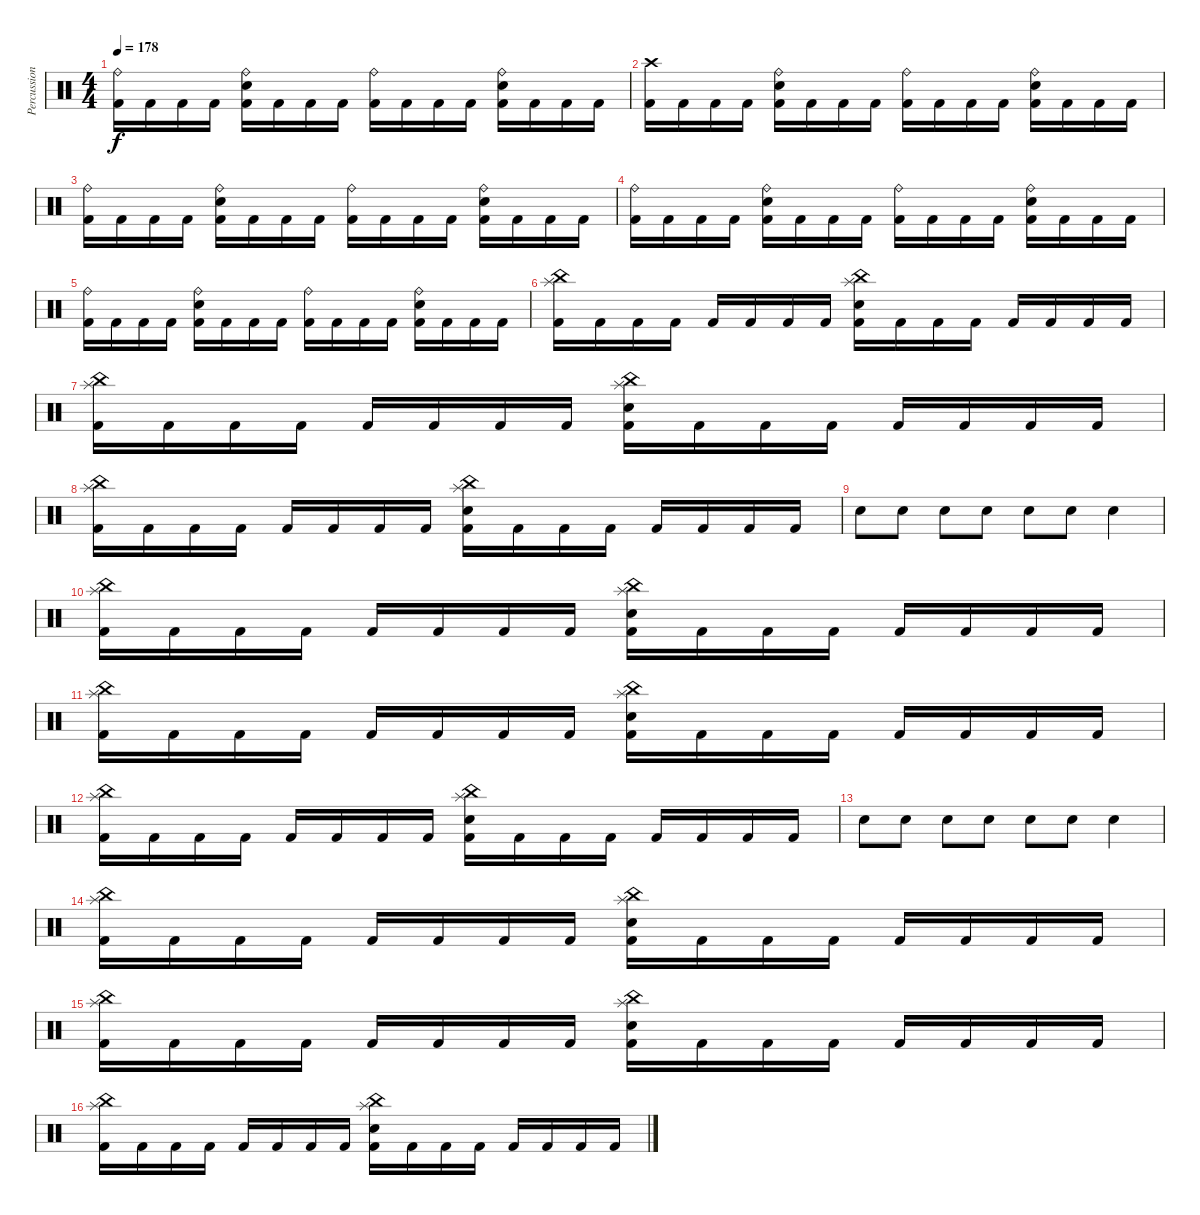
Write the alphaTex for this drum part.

\track ("Percussion" "Percussion") {instrument percussion}
\staff {score}
\articulation defaults
\ts (4 4)
\tempo 178
\clef neutral
\ks c
("Ride (bell)" "Kick (hit) 2").16{dy f} "Kick (hit) 2".16 "Kick (hit) 2".16 "Kick (hit) 2".16 ("Ride (bell)" "Electric Snare (hit)" "Kick (hit) 2").16 "Kick (hit) 2".16 "Kick (hit) 2".16 "Kick (hit) 2".16 ("Ride (bell)" "Kick (hit) 2").16 "Kick (hit) 2".16 "Kick (hit) 2".16 "Kick (hit) 2".16 ("Ride (bell)" "Electric Snare (hit)" "Kick (hit) 2").16 "Kick (hit) 2".16 "Kick (hit) 2".16 "Kick (hit) 2".16 |
("Crash high (hit)" "Kick (hit) 2").16 "Kick (hit) 2".16 "Kick (hit) 2".16 "Kick (hit) 2".16 ("Ride (bell)" "Electric Snare (hit)" "Kick (hit) 2").16 "Kick (hit) 2".16 "Kick (hit) 2".16 "Kick (hit) 2".16 ("Ride (bell)" "Kick (hit) 2").16 "Kick (hit) 2".16 "Kick (hit) 2".16 "Kick (hit) 2".16 ("Ride (bell)" "Electric Snare (hit)" "Kick (hit) 2").16 "Kick (hit) 2".16 "Kick (hit) 2".16 "Kick (hit) 2".16 |
("Ride (bell)" "Kick (hit) 2").16 "Kick (hit) 2".16 "Kick (hit) 2".16 "Kick (hit) 2".16 ("Ride (bell)" "Electric Snare (hit)" "Kick (hit) 2").16 "Kick (hit) 2".16 "Kick (hit) 2".16 "Kick (hit) 2".16 ("Ride (bell)" "Kick (hit) 2").16 "Kick (hit) 2".16 "Kick (hit) 2".16 "Kick (hit) 2".16 ("Ride (bell)" "Electric Snare (hit)" "Kick (hit) 2").16 "Kick (hit) 2".16 "Kick (hit) 2".16 "Kick (hit) 2".16 |
("Ride (bell)" "Kick (hit) 2").16 "Kick (hit) 2".16 "Kick (hit) 2".16 "Kick (hit) 2".16 ("Ride (bell)" "Electric Snare (hit)" "Kick (hit) 2").16 "Kick (hit) 2".16 "Kick (hit) 2".16 "Kick (hit) 2".16 ("Ride (bell)" "Kick (hit) 2").16 "Kick (hit) 2".16 "Kick (hit) 2".16 "Kick (hit) 2".16 ("Ride (bell)" "Electric Snare (hit)" "Kick (hit) 2").16 "Kick (hit) 2".16 "Kick (hit) 2".16 "Kick (hit) 2".16 |
("Ride (bell)" "Kick (hit) 2").16 "Kick (hit) 2".16 "Kick (hit) 2".16 "Kick (hit) 2".16 ("Ride (bell)" "Electric Snare (hit)" "Kick (hit) 2").16 "Kick (hit) 2".16 "Kick (hit) 2".16 "Kick (hit) 2".16 ("Ride (bell)" "Kick (hit) 2").16 "Kick (hit) 2".16 "Kick (hit) 2".16 "Kick (hit) 2".16 ("Ride (bell)" "Electric Snare (hit)" "Kick (hit) 2").16 "Kick (hit) 2".16 "Kick (hit) 2".16 "Kick (hit) 2".16 |
("China (hit)" "Splash (hit)" "Kick (hit) 2").16 "Kick (hit) 2".16 "Kick (hit) 2".16 "Kick (hit) 2".16 "Kick (hit) 2".16 "Kick (hit) 2".16 "Kick (hit) 2".16 "Kick (hit) 2".16 ("China (hit)" "Splash (hit)" "Electric Snare (hit)" "Kick (hit) 2").16 "Kick (hit) 2".16 "Kick (hit) 2".16 "Kick (hit) 2".16 "Kick (hit) 2".16 "Kick (hit) 2".16 "Kick (hit) 2".16 "Kick (hit) 2".16 |
("China (hit)" "Splash (hit)" "Kick (hit) 2").16 "Kick (hit) 2".16 "Kick (hit) 2".16 "Kick (hit) 2".16 "Kick (hit) 2".16 "Kick (hit) 2".16 "Kick (hit) 2".16 "Kick (hit) 2".16 ("China (hit)" "Splash (hit)" "Electric Snare (hit)" "Kick (hit) 2").16 "Kick (hit) 2".16 "Kick (hit) 2".16 "Kick (hit) 2".16 "Kick (hit) 2".16 "Kick (hit) 2".16 "Kick (hit) 2".16 "Kick (hit) 2".16 |
("China (hit)" "Splash (hit)" "Kick (hit) 2").16 "Kick (hit) 2".16 "Kick (hit) 2".16 "Kick (hit) 2".16 "Kick (hit) 2".16 "Kick (hit) 2".16 "Kick (hit) 2".16 "Kick (hit) 2".16 ("China (hit)" "Splash (hit)" "Electric Snare (hit)" "Kick (hit) 2").16 "Kick (hit) 2".16 "Kick (hit) 2".16 "Kick (hit) 2".16 "Kick (hit) 2".16 "Kick (hit) 2".16 "Kick (hit) 2".16 "Kick (hit) 2".16 |
"Electric Snare (hit)".8 "Electric Snare (hit)".8 "Electric Snare (hit)".8 "Electric Snare (hit)".8 "Electric Snare (hit)".8 "Electric Snare (hit)".8 "Electric Snare (hit)".4 |
("China (hit)" "Splash (hit)" "Kick (hit) 2").16 "Kick (hit) 2".16 "Kick (hit) 2".16 "Kick (hit) 2".16 "Kick (hit) 2".16 "Kick (hit) 2".16 "Kick (hit) 2".16 "Kick (hit) 2".16 ("China (hit)" "Splash (hit)" "Electric Snare (hit)" "Kick (hit) 2").16 "Kick (hit) 2".16 "Kick (hit) 2".16 "Kick (hit) 2".16 "Kick (hit) 2".16 "Kick (hit) 2".16 "Kick (hit) 2".16 "Kick (hit) 2".16 |
("China (hit)" "Splash (hit)" "Kick (hit) 2").16 "Kick (hit) 2".16 "Kick (hit) 2".16 "Kick (hit) 2".16 "Kick (hit) 2".16 "Kick (hit) 2".16 "Kick (hit) 2".16 "Kick (hit) 2".16 ("China (hit)" "Splash (hit)" "Electric Snare (hit)" "Kick (hit) 2").16 "Kick (hit) 2".16 "Kick (hit) 2".16 "Kick (hit) 2".16 "Kick (hit) 2".16 "Kick (hit) 2".16 "Kick (hit) 2".16 "Kick (hit) 2".16 |
("China (hit)" "Splash (hit)" "Kick (hit) 2").16 "Kick (hit) 2".16 "Kick (hit) 2".16 "Kick (hit) 2".16 "Kick (hit) 2".16 "Kick (hit) 2".16 "Kick (hit) 2".16 "Kick (hit) 2".16 ("China (hit)" "Splash (hit)" "Electric Snare (hit)" "Kick (hit) 2").16 "Kick (hit) 2".16 "Kick (hit) 2".16 "Kick (hit) 2".16 "Kick (hit) 2".16 "Kick (hit) 2".16 "Kick (hit) 2".16 "Kick (hit) 2".16 |
"Electric Snare (hit)".8 "Electric Snare (hit)".8 "Electric Snare (hit)".8 "Electric Snare (hit)".8 "Electric Snare (hit)".8 "Electric Snare (hit)".8 "Electric Snare (hit)".4 |
("China (hit)" "Splash (hit)" "Kick (hit) 2").16 "Kick (hit) 2".16 "Kick (hit) 2".16 "Kick (hit) 2".16 "Kick (hit) 2".16 "Kick (hit) 2".16 "Kick (hit) 2".16 "Kick (hit) 2".16 ("China (hit)" "Splash (hit)" "Electric Snare (hit)" "Kick (hit) 2").16 "Kick (hit) 2".16 "Kick (hit) 2".16 "Kick (hit) 2".16 "Kick (hit) 2".16 "Kick (hit) 2".16 "Kick (hit) 2".16 "Kick (hit) 2".16 |
("China (hit)" "Splash (hit)" "Kick (hit) 2").16 "Kick (hit) 2".16 "Kick (hit) 2".16 "Kick (hit) 2".16 "Kick (hit) 2".16 "Kick (hit) 2".16 "Kick (hit) 2".16 "Kick (hit) 2".16 ("China (hit)" "Splash (hit)" "Electric Snare (hit)" "Kick (hit) 2").16 "Kick (hit) 2".16 "Kick (hit) 2".16 "Kick (hit) 2".16 "Kick (hit) 2".16 "Kick (hit) 2".16 "Kick (hit) 2".16 "Kick (hit) 2".16 |
("China (hit)" "Splash (hit)" "Kick (hit) 2").16 "Kick (hit) 2".16 "Kick (hit) 2".16 "Kick (hit) 2".16 "Kick (hit) 2".16 "Kick (hit) 2".16 "Kick (hit) 2".16 "Kick (hit) 2".16 ("China (hit)" "Splash (hit)" "Electric Snare (hit)" "Kick (hit) 2").16 "Kick (hit) 2".16 "Kick (hit) 2".16 "Kick (hit) 2".16 "Kick (hit) 2".16 "Kick (hit) 2".16 "Kick (hit) 2".16 "Kick (hit) 2".16
